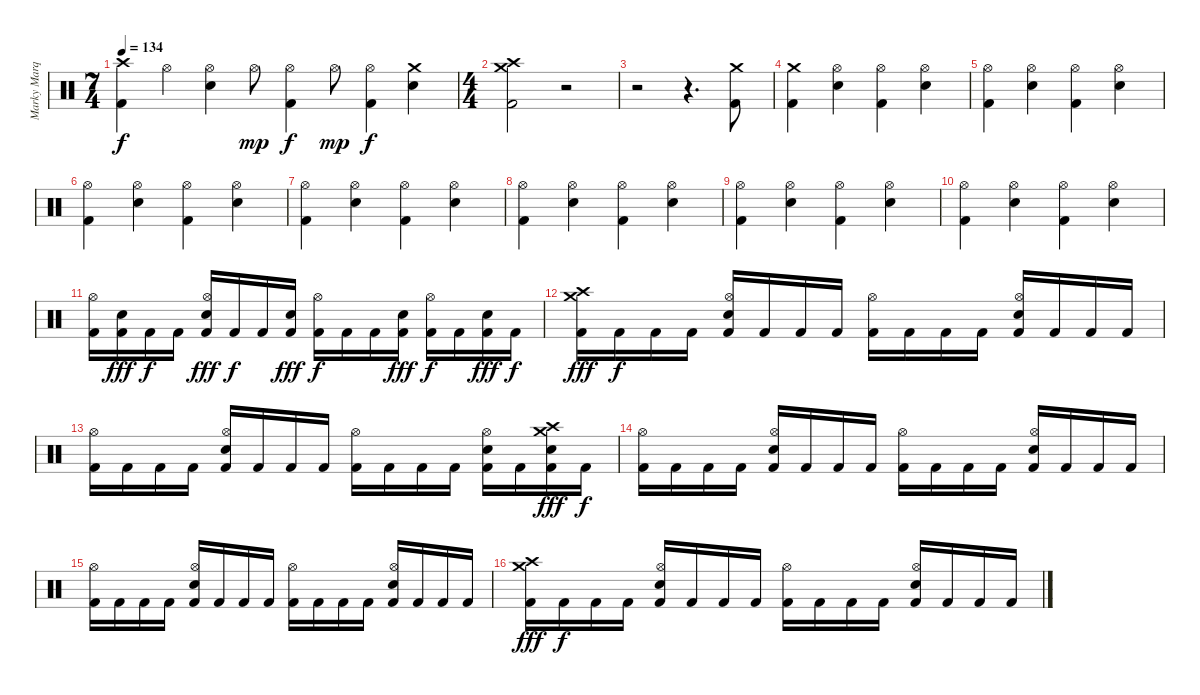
\track ("Marky Marquis" "Marky Marq") {instrument percussion}
\staff {score}
\articulation defaults
\ts (7 4)
\tempo 134
\clef neutral
\ks c
("Crash high (hit)" "Kick (hit) 2").4{dy f} "Hi-Hat (open)".4 ("Hi-Hat (open)" "Electric Snare (hit)").4 "Hi-Hat (open)".8{dy mp} ("Hi-Hat (open)" "Kick (hit) 2").4{dy f} "Hi-Hat (open)".8{dy mp} ("Hi-Hat (open)" "Kick (hit) 2").4{dy f} ("Crash medium (hit)" "Electric Snare (hit)").4 |
\ts (4 4)
("Crash high (hit)" "Crash medium (hit)" "Kick (hit) 2").2 r.2 |
r.2 r.4{d} ("Crash medium (hit)" "Kick (hit) 2").8 |
("Crash medium (hit)" "Kick (hit) 2").4 ("Hi-Hat (open)" "Electric Snare (hit)").4 ("Hi-Hat (open)" "Kick (hit) 2").4 ("Hi-Hat (open)" "Electric Snare (hit)").4 |
("Hi-Hat (open)" "Kick (hit) 2").4 ("Hi-Hat (open)" "Electric Snare (hit)").4 ("Hi-Hat (open)" "Kick (hit) 2").4 ("Hi-Hat (open)" "Electric Snare (hit)").4 |
("Hi-Hat (open)" "Kick (hit) 2").4 ("Hi-Hat (open)" "Electric Snare (hit)").4 ("Hi-Hat (open)" "Kick (hit) 2").4 ("Hi-Hat (open)" "Electric Snare (hit)").4 |
("Hi-Hat (open)" "Kick (hit) 2").4 ("Hi-Hat (open)" "Electric Snare (hit)").4 ("Hi-Hat (open)" "Kick (hit) 2").4 ("Hi-Hat (open)" "Electric Snare (hit)").4 |
("Hi-Hat (open)" "Kick (hit) 2").4 ("Hi-Hat (open)" "Electric Snare (hit)").4 ("Hi-Hat (open)" "Kick (hit) 2").4 ("Hi-Hat (open)" "Electric Snare (hit)").4 |
("Hi-Hat (open)" "Kick (hit) 2").4 ("Hi-Hat (open)" "Electric Snare (hit)").4 ("Hi-Hat (open)" "Kick (hit) 2").4 ("Hi-Hat (open)" "Electric Snare (hit)").4 |
("Hi-Hat (open)" "Kick (hit) 2").4 ("Hi-Hat (open)" "Electric Snare (hit)").4 ("Hi-Hat (open)" "Kick (hit) 2").4 ("Hi-Hat (open)" "Electric Snare (hit)").4 |
("Hi-Hat (open)" "Kick (hit) 2").16 ("Electric Snare (hit)" "Kick (hit) 2").16{dy fff} "Kick (hit) 2".16{dy f} "Kick (hit) 2".16 ("Hi-Hat (open)" "Electric Snare (hit)" "Kick (hit) 2").16{dy fff} "Kick (hit) 2".16{dy f} "Kick (hit) 2".16 ("Electric Snare (hit)" "Kick (hit) 2").16{dy fff} ("Hi-Hat (open)" "Kick (hit) 2").16{dy f} "Kick (hit) 2".16 "Kick (hit) 2".16 ("Electric Snare (hit)" "Kick (hit) 2").16{dy fff} ("Hi-Hat (open)" "Kick (hit) 2").16{dy f} "Kick (hit) 2".16 ("Electric Snare (hit)" "Kick (hit) 2").16{dy fff} "Kick (hit) 2".16{dy f} |
("Crash high (hit)" "Crash medium (hit)" "Kick (hit) 2").16{dy fff} "Kick (hit) 2".16{dy f} "Kick (hit) 2".16 "Kick (hit) 2".16 ("Hi-Hat (open)" "Electric Snare (hit)" "Kick (hit) 2").16 "Kick (hit) 2".16 "Kick (hit) 2".16 "Kick (hit) 2".16 ("Hi-Hat (open)" "Kick (hit) 2").16 "Kick (hit) 2".16 "Kick (hit) 2".16 "Kick (hit) 2".16 ("Hi-Hat (open)" "Electric Snare (hit)" "Kick (hit) 2").16 "Kick (hit) 2".16 "Kick (hit) 2".16 "Kick (hit) 2".16 |
("Hi-Hat (open)" "Kick (hit) 2").16 "Kick (hit) 2".16 "Kick (hit) 2".16 "Kick (hit) 2".16 ("Hi-Hat (open)" "Electric Snare (hit)" "Kick (hit) 2").16 "Kick (hit) 2".16 "Kick (hit) 2".16 "Kick (hit) 2".16 ("Hi-Hat (open)" "Kick (hit) 2").16 "Kick (hit) 2".16 "Kick (hit) 2".16 "Kick (hit) 2".16 ("Hi-Hat (open)" "Electric Snare (hit)" "Kick (hit) 2").16 "Kick (hit) 2".16 ("Crash high (hit)" "Crash medium (hit)" "Electric Snare (hit)" "Kick (hit) 2").16{dy fff} "Kick (hit) 2".16{dy f} |
("Hi-Hat (open)" "Kick (hit) 2").16 "Kick (hit) 2".16 "Kick (hit) 2".16 "Kick (hit) 2".16 ("Hi-Hat (open)" "Electric Snare (hit)" "Kick (hit) 2").16 "Kick (hit) 2".16 "Kick (hit) 2".16 "Kick (hit) 2".16 ("Hi-Hat (open)" "Kick (hit) 2").16 "Kick (hit) 2".16 "Kick (hit) 2".16 "Kick (hit) 2".16 ("Hi-Hat (open)" "Electric Snare (hit)" "Kick (hit) 2").16 "Kick (hit) 2".16 "Kick (hit) 2".16 "Kick (hit) 2".16 |
("Hi-Hat (open)" "Kick (hit) 2").16 "Kick (hit) 2".16 "Kick (hit) 2".16 "Kick (hit) 2".16 ("Hi-Hat (open)" "Electric Snare (hit)" "Kick (hit) 2").16 "Kick (hit) 2".16 "Kick (hit) 2".16 "Kick (hit) 2".16 ("Hi-Hat (open)" "Kick (hit) 2").16 "Kick (hit) 2".16 "Kick (hit) 2".16 "Kick (hit) 2".16 ("Hi-Hat (open)" "Electric Snare (hit)" "Kick (hit) 2").16 "Kick (hit) 2".16 "Kick (hit) 2".16 "Kick (hit) 2".16 |
("Crash high (hit)" "Crash medium (hit)" "Kick (hit) 2").16{dy fff} "Kick (hit) 2".16{dy f} "Kick (hit) 2".16 "Kick (hit) 2".16 ("Hi-Hat (open)" "Electric Snare (hit)" "Kick (hit) 2").16 "Kick (hit) 2".16 "Kick (hit) 2".16 "Kick (hit) 2".16 ("Hi-Hat (open)" "Kick (hit) 2").16 "Kick (hit) 2".16 "Kick (hit) 2".16 "Kick (hit) 2".16 ("Hi-Hat (open)" "Electric Snare (hit)" "Kick (hit) 2").16 "Kick (hit) 2".16 "Kick (hit) 2".16 "Kick (hit) 2".16
